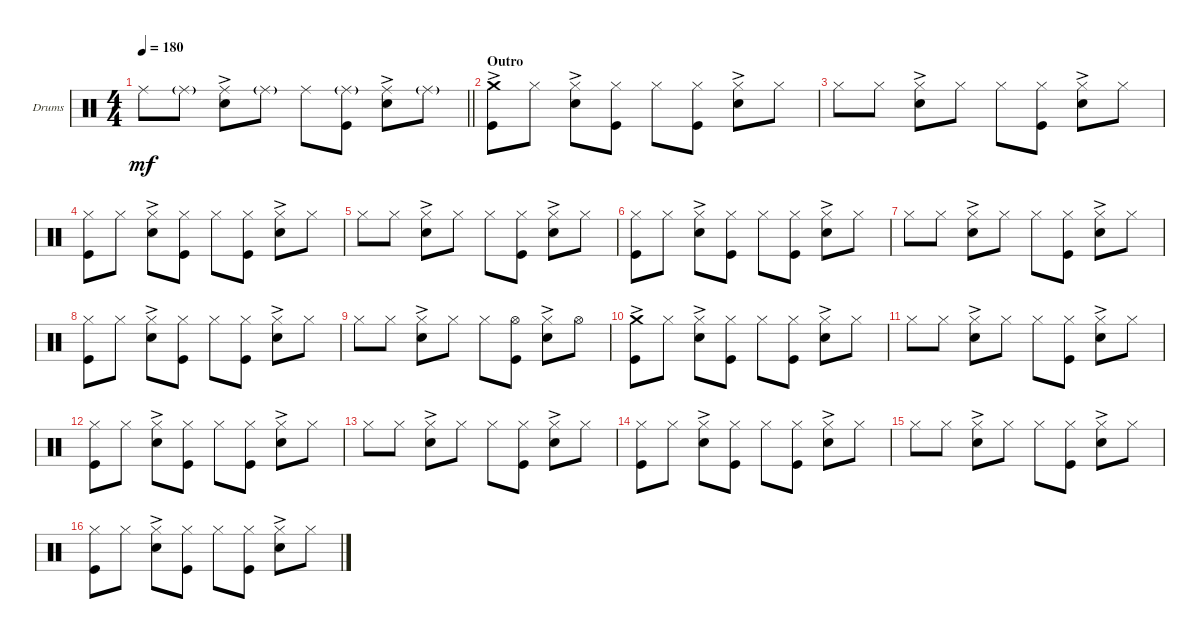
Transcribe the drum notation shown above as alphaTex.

\defaultSystemsLayout 4
\bracketExtendMode groupsimilarinstruments
\firstSystemTrackNameOrientation horizontal
\otherSystemsTrackNameOrientation horizontal
\track ("Will - Drumkit" "Drums") {instrument percussion}
\staff {score}
\articulation defaults
\ts (4 4)
\tempo 180
\clef neutral
\barLineRight lightlight
\ks c "Ride (middle)".8{dy mf} "Ride (middle)"{g}.8
("Ride (middle)" "Snare (hit) 2"{ac}).8 "Ride (middle)"{g}.8 "Ride (middle)".8 ("Ride (middle)"{g} "Kick (hit)").8 ("Ride (middle)" "Snare (hit) 2"{ac}).8 "Ride (middle)"{g}.8 |
\section ("" "Outro")
("Crash medium (hit)"{ac} "Kick (hit)").8 "Hi-Hat (closed)".8 ("Hi-Hat (closed)" "Snare (hit) 2"{ac}).8 ("Hi-Hat (closed)" "Kick (hit)").8 "Hi-Hat (closed)".8 ("Hi-Hat (closed)" "Kick (hit)").8 ("Hi-Hat (closed)" "Snare (hit) 2"{ac}).8 "Hi-Hat (closed)".8 |
"Hi-Hat (closed)".8 "Hi-Hat (closed)".8 ("Hi-Hat (closed)" "Snare (hit) 2"{ac}).8 "Hi-Hat (closed)".8 "Hi-Hat (closed)".8 ("Hi-Hat (closed)" "Kick (hit)").8 ("Hi-Hat (closed)" "Snare (hit) 2"{ac}).8 "Hi-Hat (closed)".8 |
("Kick (hit)" "Hi-Hat (closed)").8 "Hi-Hat (closed)".8 ("Hi-Hat (closed)" "Snare (hit) 2"{ac}).8 ("Hi-Hat (closed)" "Kick (hit)").8 "Hi-Hat (closed)".8 ("Hi-Hat (closed)" "Kick (hit)").8 ("Hi-Hat (closed)" "Snare (hit) 2"{ac}).8 "Hi-Hat (closed)".8 |
"Hi-Hat (closed)".8 "Hi-Hat (closed)".8 ("Hi-Hat (closed)" "Snare (hit) 2"{ac}).8 "Hi-Hat (closed)".8 "Hi-Hat (closed)".8 ("Hi-Hat (closed)" "Kick (hit)").8 ("Hi-Hat (closed)" "Snare (hit) 2"{ac}).8 "Hi-Hat (closed)".8 |
("Kick (hit)" "Hi-Hat (closed)").8 "Hi-Hat (closed)".8 ("Hi-Hat (closed)" "Snare (hit) 2"{ac}).8 ("Hi-Hat (closed)" "Kick (hit)").8 "Hi-Hat (closed)".8 ("Hi-Hat (closed)" "Kick (hit)").8 ("Hi-Hat (closed)" "Snare (hit) 2"{ac}).8 "Hi-Hat (closed)".8 |
"Hi-Hat (closed)".8 "Hi-Hat (closed)".8 ("Hi-Hat (closed)" "Snare (hit) 2"{ac}).8 "Hi-Hat (closed)".8 "Hi-Hat (closed)".8 ("Hi-Hat (closed)" "Kick (hit)").8 ("Hi-Hat (closed)" "Snare (hit) 2"{ac}).8 "Hi-Hat (closed)".8 |
("Kick (hit)" "Hi-Hat (closed)").8 "Hi-Hat (closed)".8 ("Hi-Hat (closed)" "Snare (hit) 2"{ac}).8 ("Hi-Hat (closed)" "Kick (hit)").8 "Hi-Hat (closed)".8 ("Hi-Hat (closed)" "Kick (hit)").8 ("Hi-Hat (closed)" "Snare (hit) 2"{ac}).8 "Hi-Hat (closed)".8 |
"Hi-Hat (closed)".8 "Hi-Hat (closed)".8 ("Hi-Hat (closed)" "Snare (hit) 2"{ac}).8 "Hi-Hat (closed)".8 "Hi-Hat (closed)".8 ("Hi-Hat (open)" "Kick (hit)").8 ("Hi-Hat (closed)" "Snare (hit) 2"{ac}).8 "Hi-Hat (open)".8 |
("Crash medium (hit)"{ac} "Kick (hit)").8 "Hi-Hat (closed)".8 ("Hi-Hat (closed)" "Snare (hit) 2"{ac}).8 ("Hi-Hat (closed)" "Kick (hit)").8 "Hi-Hat (closed)".8 ("Hi-Hat (closed)" "Kick (hit)").8 ("Hi-Hat (closed)" "Snare (hit) 2"{ac}).8 "Hi-Hat (closed)".8 |
"Hi-Hat (closed)".8 "Hi-Hat (closed)".8 ("Hi-Hat (closed)" "Snare (hit) 2"{ac}).8 "Hi-Hat (closed)".8 "Hi-Hat (closed)".8 ("Hi-Hat (closed)" "Kick (hit)").8 ("Hi-Hat (closed)" "Snare (hit) 2"{ac}).8 "Hi-Hat (closed)".8 |
("Kick (hit)" "Hi-Hat (closed)").8 "Hi-Hat (closed)".8 ("Hi-Hat (closed)" "Snare (hit) 2"{ac}).8 ("Hi-Hat (closed)" "Kick (hit)").8 "Hi-Hat (closed)".8 ("Hi-Hat (closed)" "Kick (hit)").8 ("Hi-Hat (closed)" "Snare (hit) 2"{ac}).8 "Hi-Hat (closed)".8 |
"Hi-Hat (closed)".8 "Hi-Hat (closed)".8 ("Hi-Hat (closed)" "Snare (hit) 2"{ac}).8 "Hi-Hat (closed)".8 "Hi-Hat (closed)".8 ("Hi-Hat (closed)" "Kick (hit)").8 ("Hi-Hat (closed)" "Snare (hit) 2"{ac}).8 "Hi-Hat (closed)".8 |
("Kick (hit)" "Hi-Hat (closed)").8 "Hi-Hat (closed)".8 ("Hi-Hat (closed)" "Snare (hit) 2"{ac}).8 ("Hi-Hat (closed)" "Kick (hit)").8 "Hi-Hat (closed)".8 ("Hi-Hat (closed)" "Kick (hit)").8 ("Hi-Hat (closed)" "Snare (hit) 2"{ac}).8 "Hi-Hat (closed)".8 |
"Hi-Hat (closed)".8 "Hi-Hat (closed)".8 ("Hi-Hat (closed)" "Snare (hit) 2"{ac}).8 "Hi-Hat (closed)".8 "Hi-Hat (closed)".8 ("Hi-Hat (closed)" "Kick (hit)").8 ("Hi-Hat (closed)" "Snare (hit) 2"{ac}).8 "Hi-Hat (closed)".8 |
("Kick (hit)" "Hi-Hat (closed)").8 "Hi-Hat (closed)".8 ("Hi-Hat (closed)" "Snare (hit) 2"{ac}).8 ("Hi-Hat (closed)" "Kick (hit)").8 "Hi-Hat (closed)".8 ("Hi-Hat (closed)" "Kick (hit)").8 ("Hi-Hat (closed)" "Snare (hit) 2"{ac}).8 "Hi-Hat (closed)".8
